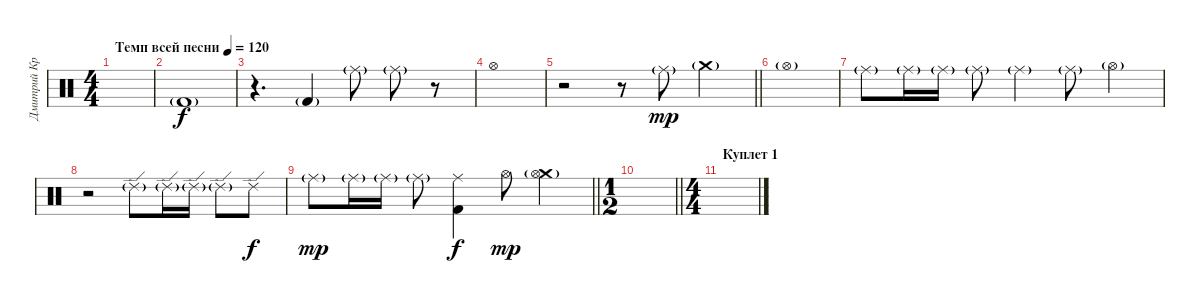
\track ("Дмитрий Кривенков       (Ударные)" "Дмитрий Кр") {instrument percussion}
\staff {score}
\articulation defaults
\ts (4 4)
\tempo (120 "Темп всей песни")
\clef neutral
\ks c
|
"Kick (hit) 2"{g}.1 |
r.4{d} "Kick (hit) 2"{g}.4 "Ride (middle)"{g}.8 "Ride (middle)"{g}.8 r.8 |
"Hi-Hat (open)".1{dy f} |
\barLineRight lightlight
r.2 r.8 "Ride (middle)"{g}.8{dy mp} "Crash medium (hit)"{g}.4 |
"Hi-Hat (open)"{g}.1 |
"Ride (middle)"{g}.8 "Ride (middle)"{g}.16 "Ride (middle)"{g}.16 "Ride (middle)"{g}.8 "Ride (middle)"{g}.4 "Ride (middle)"{g}.8 "Hi-Hat (open)"{g}.4 |
r.2 "Ride (edge) 2"{g}.8 "Ride (edge) 2"{g}.16 "Ride (edge) 2"{g}.16 "Ride (edge) 2"{g}.8 "Ride (edge) 2".8{dy f} |
\barLineRight lightlight "Ride (middle)"{g}.8{dy mp} "Ride (middle)"{g}.16 "Ride (middle)"{g}.16 "Ride (middle)"{g}.8
("Ride (middle)" "Kick (hit) 2").4{dy f} "Hi-Hat (open)".8{dy mp} ("Crash medium (hit)" "Hi-Hat (open)"{g}).4 |
\ts (1 2)
\barLineRight lightlight
|
\ts (4 4)
\section ("" "Куплет 1")
